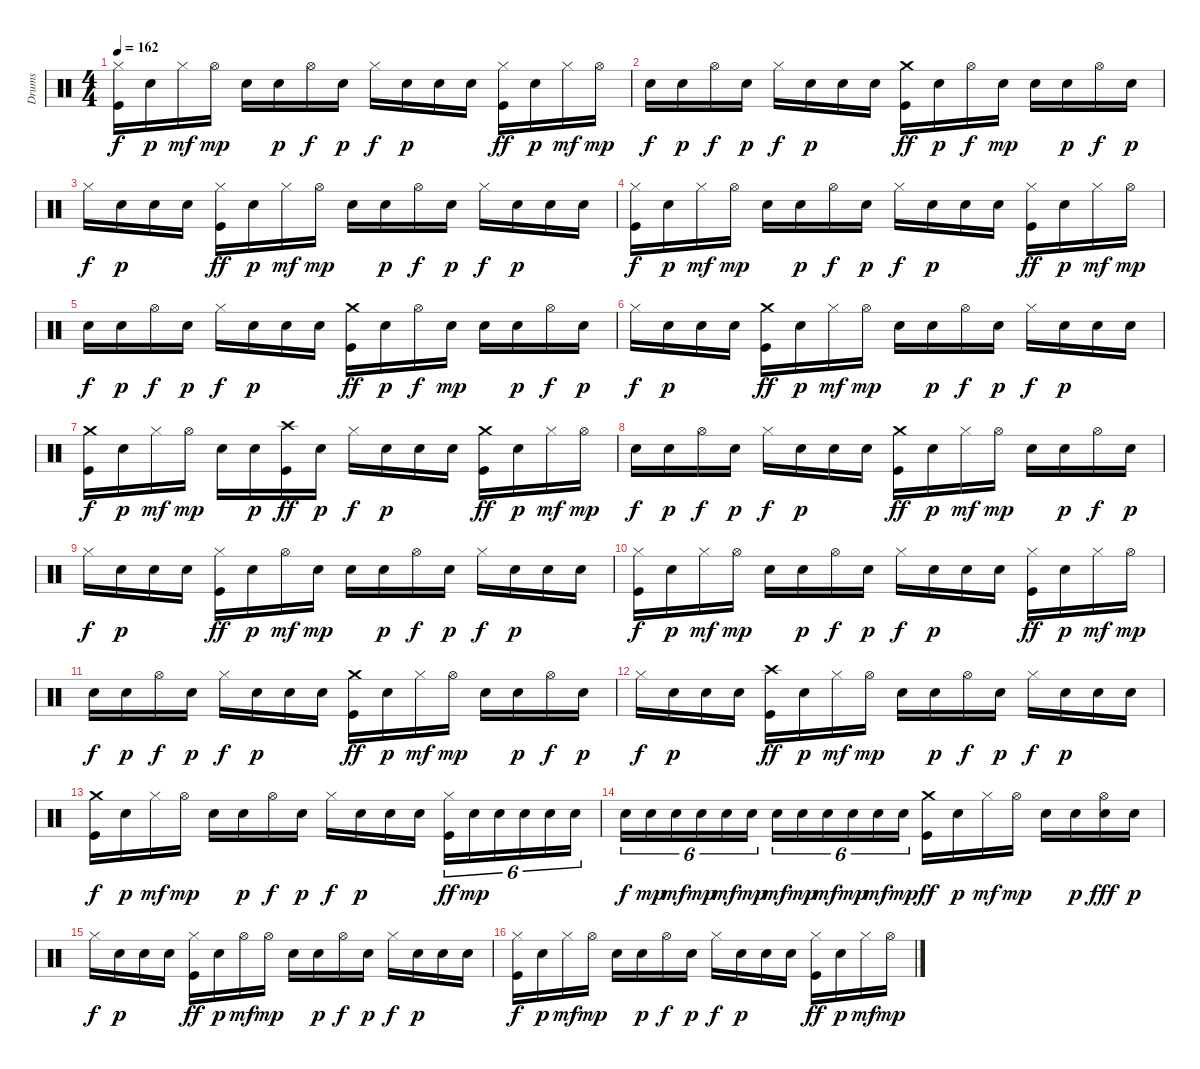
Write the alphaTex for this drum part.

\track ("Drums" "Drums") {instrument percussion}
\staff {score}
\articulation defaults
\ts (4 4)
\tempo 162
\clef neutral
\ks c
("Kick (hit)" "Hi-Hat (closed)").16{dy f} "Snare (hit) 2".16{dy p} "Hi-Hat (closed)".16{dy mf} "Hi-Hat (open)".16{dy mp} "Snare (hit) 2".16 "Snare (hit) 2".16{dy p} "Hi-Hat (open)".16{dy f} "Snare (hit) 2".16{dy p} "Hi-Hat (closed)".16{dy f} "Snare (hit) 2".16{dy p} "Snare (hit) 2".16 "Snare (hit) 2".16 ("Kick (hit)" "Hi-Hat (closed)").16{dy ff} "Snare (hit) 2".16{dy p} "Hi-Hat (closed)".16{dy mf} "Hi-Hat (open)".16{dy mp} |
"Snare (hit) 2".16{dy f} "Snare (hit) 2".16{dy p} "Hi-Hat (open)".16{dy f} "Snare (hit) 2".16{dy p} "Hi-Hat (closed)".16{dy f} "Snare (hit) 2".16{dy p} "Snare (hit) 2".16 "Snare (hit) 2".16 ("Kick (hit)" "Crash medium (hit)").16{dy ff} "Snare (hit) 2".16{dy p} "Hi-Hat (open)".16{dy f} "Snare (hit) 2".16{dy mp} "Snare (hit) 2".16 "Snare (hit) 2".16{dy p} "Hi-Hat (open)".16{dy f} "Snare (hit) 2".16{dy p} |
"Hi-Hat (closed)".16{dy f} "Snare (hit) 2".16{dy p} "Snare (hit) 2".16 "Snare (hit) 2".16 ("Kick (hit)" "Hi-Hat (closed)").16{dy ff} "Snare (hit) 2".16{dy p} "Hi-Hat (closed)".16{dy mf} "Hi-Hat (open)".16{dy mp} "Snare (hit) 2".16 "Snare (hit) 2".16{dy p} "Hi-Hat (open)".16{dy f} "Snare (hit) 2".16{dy p} "Hi-Hat (closed)".16{dy f} "Snare (hit) 2".16{dy p} "Snare (hit) 2".16 "Snare (hit) 2".16 |
("Kick (hit)" "Hi-Hat (closed)").16{dy f} "Snare (hit) 2".16{dy p} "Hi-Hat (closed)".16{dy mf} "Hi-Hat (open)".16{dy mp} "Snare (hit) 2".16 "Snare (hit) 2".16{dy p} "Hi-Hat (open)".16{dy f} "Snare (hit) 2".16{dy p} "Hi-Hat (closed)".16{dy f} "Snare (hit) 2".16{dy p} "Snare (hit) 2".16 "Snare (hit) 2".16 ("Kick (hit)" "Hi-Hat (closed)").16{dy ff} "Snare (hit) 2".16{dy p} "Hi-Hat (closed)".16{dy mf} "Hi-Hat (open)".16{dy mp} |
"Snare (hit) 2".16{dy f} "Snare (hit) 2".16{dy p} "Hi-Hat (open)".16{dy f} "Snare (hit) 2".16{dy p} "Hi-Hat (closed)".16{dy f} "Snare (hit) 2".16{dy p} "Snare (hit) 2".16 "Snare (hit) 2".16 ("Kick (hit)" "Crash medium (hit)").16{dy ff} "Snare (hit) 2".16{dy p} "Hi-Hat (open)".16{dy f} "Snare (hit) 2".16{dy mp} "Snare (hit) 2".16 "Snare (hit) 2".16{dy p} "Hi-Hat (open)".16{dy f} "Snare (hit) 2".16{dy p} |
"Hi-Hat (closed)".16{dy f} "Snare (hit) 2".16{dy p} "Snare (hit) 2".16 "Snare (hit) 2".16 ("Kick (hit)" "Crash medium (hit)").16{dy ff} "Snare (hit) 2".16{dy p} "Hi-Hat (closed)".16{dy mf} "Hi-Hat (open)".16{dy mp} "Snare (hit) 2".16 "Snare (hit) 2".16{dy p} "Hi-Hat (open)".16{dy f} "Snare (hit) 2".16{dy p} "Hi-Hat (closed)".16{dy f} "Snare (hit) 2".16{dy p} "Snare (hit) 2".16 "Snare (hit) 2".16 |
("Kick (hit)" "Crash medium (hit)").16{dy f} "Snare (hit) 2".16{dy p} "Hi-Hat (closed)".16{dy mf} "Hi-Hat (open)".16{dy mp} "Snare (hit) 2".16 "Snare (hit) 2".16{dy p} ("Kick (hit)" "Crash high (hit)").16{dy ff} "Snare (hit) 2".16{dy p} "Hi-Hat (closed)".16{dy f} "Snare (hit) 2".16{dy p} "Snare (hit) 2".16 "Snare (hit) 2".16 ("Kick (hit)" "Crash medium (hit)").16{dy ff} "Snare (hit) 2".16{dy p} "Hi-Hat (closed)".16{dy mf} "Hi-Hat (open)".16{dy mp} |
"Snare (hit) 2".16{dy f} "Snare (hit) 2".16{dy p} "Hi-Hat (open)".16{dy f} "Snare (hit) 2".16{dy p} "Hi-Hat (closed)".16{dy f} "Snare (hit) 2".16{dy p} "Snare (hit) 2".16 "Snare (hit) 2".16 ("Kick (hit)" "Crash medium (hit)").16{dy ff} "Snare (hit) 2".16{dy p} "Hi-Hat (closed)".16{dy mf} "Hi-Hat (open)".16{dy mp} "Snare (hit) 2".16 "Snare (hit) 2".16{dy p} "Hi-Hat (open)".16{dy f} "Snare (hit) 2".16{dy p} |
"Hi-Hat (closed)".16{dy f} "Snare (hit) 2".16{dy p} "Snare (hit) 2".16 "Snare (hit) 2".16 ("Kick (hit)" "Hi-Hat (closed)").16{dy ff} "Snare (hit) 2".16{dy p} "Hi-Hat (open)".16{dy mf} "Snare (hit) 2".16{dy mp} "Snare (hit) 2".16 "Snare (hit) 2".16{dy p} "Hi-Hat (open)".16{dy f} "Snare (hit) 2".16{dy p} "Hi-Hat (closed)".16{dy f} "Snare (hit) 2".16{dy p} "Snare (hit) 2".16 "Snare (hit) 2".16 |
("Kick (hit)" "Hi-Hat (closed)").16{dy f} "Snare (hit) 2".16{dy p} "Hi-Hat (closed)".16{dy mf} "Hi-Hat (open)".16{dy mp} "Snare (hit) 2".16 "Snare (hit) 2".16{dy p} "Hi-Hat (open)".16{dy f} "Snare (hit) 2".16{dy p} "Hi-Hat (closed)".16{dy f} "Snare (hit) 2".16{dy p} "Snare (hit) 2".16 "Snare (hit) 2".16 ("Kick (hit)" "Hi-Hat (closed)").16{dy ff} "Snare (hit) 2".16{dy p} "Hi-Hat (closed)".16{dy mf} "Hi-Hat (open)".16{dy mp} |
"Snare (hit) 2".16{dy f} "Snare (hit) 2".16{dy p} "Hi-Hat (open)".16{dy f} "Snare (hit) 2".16{dy p} "Hi-Hat (closed)".16{dy f} "Snare (hit) 2".16{dy p} "Snare (hit) 2".16 "Snare (hit) 2".16 ("Kick (hit)" "Crash medium (hit)").16{dy ff} "Snare (hit) 2".16{dy p} "Hi-Hat (closed)".16{dy mf} "Hi-Hat (open)".16{dy mp} "Snare (hit) 2".16 "Snare (hit) 2".16{dy p} "Hi-Hat (open)".16{dy f} "Snare (hit) 2".16{dy p} |
"Hi-Hat (closed)".16{dy f} "Snare (hit) 2".16{dy p} "Snare (hit) 2".16 "Snare (hit) 2".16 ("Kick (hit)" "Crash high (hit)").16{dy ff} "Snare (hit) 2".16{dy p} "Hi-Hat (closed)".16{dy mf} "Hi-Hat (open)".16{dy mp} "Snare (hit) 2".16 "Snare (hit) 2".16{dy p} "Hi-Hat (open)".16{dy f} "Snare (hit) 2".16{dy p} "Hi-Hat (closed)".16{dy f} "Snare (hit) 2".16{dy p} "Snare (hit) 2".16 "Snare (hit) 2".16 |
("Kick (hit)" "Crash medium (hit)").16{dy f} "Snare (hit) 2".16{dy p} "Hi-Hat (closed)".16{dy mf} "Hi-Hat (open)".16{dy mp} "Snare (hit) 2".16 "Snare (hit) 2".16{dy p} "Hi-Hat (open)".16{dy f} "Snare (hit) 2".16{dy p} "Hi-Hat (closed)".16{dy f} "Snare (hit) 2".16{dy p} "Snare (hit) 2".16 "Snare (hit) 2".16 ("Kick (hit)" "Hi-Hat (closed)").16{tu (6 4) dy ff} "Snare (hit) 2".16{tu (6 4) dy mp} "Snare (hit) 2".16{tu (6 4)} "Snare (hit) 2".16{tu (6 4)} "Snare (hit) 2".16{tu (6 4)} "Snare (hit) 2".16{tu (6 4)} |
"Snare (hit) 2".16{tu (6 4) dy f} "Snare (hit) 2".16{tu (6 4) dy mp} "Snare (hit) 2".16{tu (6 4) dy mf} "Snare (hit) 2".16{tu (6 4) dy mp} "Snare (hit) 2".16{tu (6 4) dy mf} "Snare (hit) 2".16{tu (6 4) dy mp} "Snare (hit) 2".16{tu (6 4) dy mf} "Snare (hit) 2".16{tu (6 4) dy mp} "Snare (hit) 2".16{tu (6 4) dy mf} "Snare (hit) 2".16{tu (6 4) dy mp} "Snare (hit) 2".16{tu (6 4) dy mf} "Snare (hit) 2".16{tu (6 4) dy mp} ("Kick (hit)" "Crash medium (hit)").16{dy ff} "Snare (hit) 2".16{dy p} "Hi-Hat (closed)".16{dy mf} "Hi-Hat (open)".16{dy mp} "Snare (hit) 2".16 "Snare (hit) 2".16{dy p} ("Electric Snare (hit)" "Hi-Hat (open)").16{dy fff} "Snare (hit) 2".16{dy p} |
"Hi-Hat (closed)".16{dy f} "Snare (hit) 2".16{dy p} "Snare (hit) 2".16 "Snare (hit) 2".16 ("Kick (hit)" "Hi-Hat (closed)").16{dy ff} "Snare (hit) 2".16{dy p} "Hi-Hat (open)".16{dy mf} "Hi-Hat (open)".16{dy mp} "Snare (hit) 2".16 "Snare (hit) 2".16{dy p} "Hi-Hat (open)".16{dy f} "Snare (hit) 2".16{dy p} "Hi-Hat (closed)".16{dy f} "Snare (hit) 2".16{dy p} "Snare (hit) 2".16 "Snare (hit) 2".16 |
("Kick (hit)" "Hi-Hat (closed)").16{dy f} "Snare (hit) 2".16{dy p} "Hi-Hat (closed)".16{dy mf} "Hi-Hat (open)".16{dy mp} "Snare (hit) 2".16 "Snare (hit) 2".16{dy p} "Hi-Hat (open)".16{dy f} "Snare (hit) 2".16{dy p} "Hi-Hat (closed)".16{dy f} "Snare (hit) 2".16{dy p} "Snare (hit) 2".16 "Snare (hit) 2".16 ("Kick (hit)" "Hi-Hat (closed)").16{dy ff} "Snare (hit) 2".16{dy p} "Hi-Hat (closed)".16{dy mf} "Hi-Hat (open)".16{dy mp}
